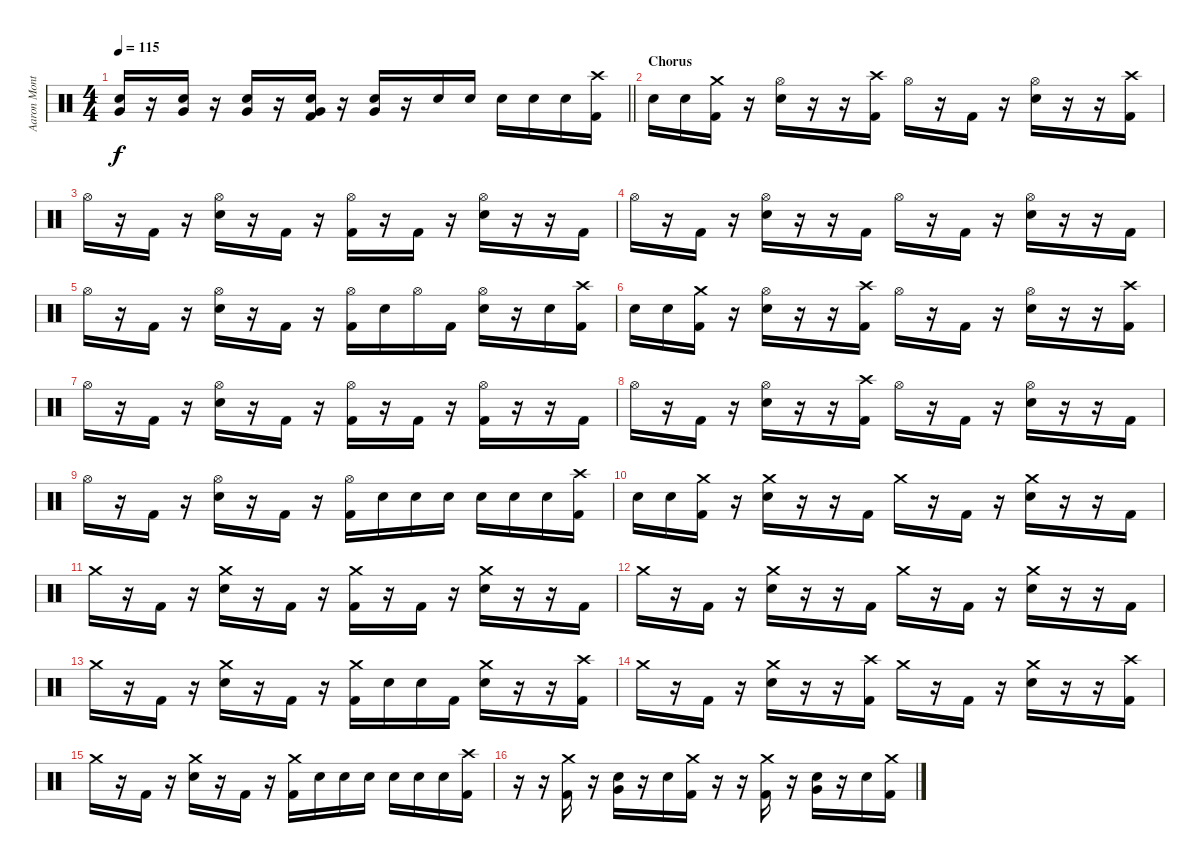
\track ("Aaron Montgomery" "Aaron Mont") {instrument percussion}
\staff {score}
\articulation defaults
\ts (4 4)
\tempo 115
\clef neutral
\barLineRight lightlight
\ks c
("Very Low Tom (hit)" "Snare (hit) 2").16{dy f} r.16 ("Very Low Tom (hit)" "Snare (hit) 2").16 r.16 ("Very Low Tom (hit)" "Snare (hit) 2").16 r.16 ("Very Low Tom (hit)" "Snare (hit) 2" "Kick (hit) 2").16 r.16 ("Very Low Tom (hit)" "Snare (hit) 2").16 r.16 "Snare (hit) 2".16 "Snare (hit) 2".16 "Snare (hit) 2".16 "Snare (hit) 2".16 "Snare (hit) 2".16 ("Crash high (hit)" "Kick (hit) 2").16 |
\section ("" "Chorus")
"Snare (hit) 2".16 "Snare (hit) 2".16 ("Crash medium (hit)" "Kick (hit) 2").16 r.16 ("Hi-Hat (open)" "Snare (hit) 2").16 r.16 r.16 ("Crash high (hit)" "Kick (hit) 2").16 "Hi-Hat (open)".16 r.16 "Kick (hit) 2".16 r.16 ("Hi-Hat (open)" "Snare (hit) 2").16 r.16 r.16 ("Crash high (hit)" "Kick (hit) 2").16 |
"Hi-Hat (open)".16 r.16 "Kick (hit) 2".16 r.16 ("Hi-Hat (open)" "Snare (hit) 2").16 r.16 "Kick (hit) 2".16 r.16 ("Hi-Hat (open)" "Kick (hit) 2").16 r.16 "Kick (hit) 2".16 r.16 ("Hi-Hat (open)" "Snare (hit) 2").16 r.16 r.16 "Kick (hit) 2".16 |
"Hi-Hat (open)".16 r.16 "Kick (hit) 2".16 r.16 ("Hi-Hat (open)" "Snare (hit) 2").16 r.16 r.16 "Kick (hit) 2".16 "Hi-Hat (open)".16 r.16 "Kick (hit) 2".16 r.16 ("Hi-Hat (open)" "Snare (hit) 2").16 r.16 r.16 "Kick (hit) 2".16 |
"Hi-Hat (open)".16 r.16 "Kick (hit) 2".16 r.16 ("Hi-Hat (open)" "Snare (hit) 2").16 r.16 "Kick (hit) 2".16 r.16 ("Hi-Hat (open)" "Kick (hit) 2").16 "Snare (hit) 2".16 "Hi-Hat (open)".16 "Kick (hit) 2".16 ("Hi-Hat (open)" "Snare (hit) 2").16 r.16 "Snare (hit) 2".16 ("Crash high (hit)" "Kick (hit) 2").16 |
"Snare (hit) 2".16 "Snare (hit) 2".16 ("Crash medium (hit)" "Kick (hit) 2").16 r.16 ("Hi-Hat (open)" "Snare (hit) 2").16 r.16 r.16 ("Crash high (hit)" "Kick (hit) 2").16 "Hi-Hat (open)".16 r.16 "Kick (hit) 2".16 r.16 ("Hi-Hat (open)" "Snare (hit) 2").16 r.16 r.16 ("Crash high (hit)" "Kick (hit) 2").16 |
"Hi-Hat (open)".16 r.16 "Kick (hit) 2".16 r.16 ("Hi-Hat (open)" "Snare (hit) 2").16 r.16 "Kick (hit) 2".16 r.16 ("Hi-Hat (open)" "Kick (hit) 2").16 r.16 "Kick (hit) 2".16 r.16 ("Hi-Hat (open)" "Kick (hit) 2").16 r.16 r.16 "Kick (hit) 2".16 |
"Hi-Hat (open)".16 r.16 "Kick (hit) 2".16 r.16 ("Hi-Hat (open)" "Snare (hit) 2").16 r.16 r.16 ("Crash high (hit)" "Kick (hit) 2").16 "Hi-Hat (open)".16 r.16 "Kick (hit) 2".16 r.16 ("Hi-Hat (open)" "Snare (hit) 2").16 r.16 r.16 "Kick (hit) 2".16 |
"Hi-Hat (open)".16 r.16 "Kick (hit) 2".16 r.16 ("Hi-Hat (open)" "Snare (hit) 2").16 r.16 "Kick (hit) 2".16 r.16 ("Hi-Hat (open)" "Kick (hit) 2").16 "Snare (hit) 2".16 "Snare (hit) 2".16 "Snare (hit) 2".16 "Snare (hit) 2".16 "Snare (hit) 2".16 "Snare (hit) 2".16 ("Crash high (hit)" "Kick (hit) 2").16 |
"Snare (hit) 2".16 "Snare (hit) 2".16 ("Crash medium (hit)" "Kick (hit) 2").16 r.16 ("Crash medium (hit)" "Snare (hit) 2").16 r.16 r.16 "Kick (hit) 2".16 "Crash medium (hit)".16 r.16 "Kick (hit) 2".16 r.16 ("Crash medium (hit)" "Snare (hit) 2").16 r.16 r.16 "Kick (hit) 2".16 |
"Crash medium (hit)".16 r.16 "Kick (hit) 2".16 r.16 ("Crash medium (hit)" "Snare (hit) 2").16 r.16 "Kick (hit) 2".16 r.16 ("Crash medium (hit)" "Kick (hit) 2").16 r.16 "Kick (hit) 2".16 r.16 ("Crash medium (hit)" "Snare (hit) 2").16 r.16 r.16 "Kick (hit) 2".16 |
"Crash medium (hit)".16 r.16 "Kick (hit) 2".16 r.16 ("Crash medium (hit)" "Snare (hit) 2").16 r.16 r.16 "Kick (hit) 2".16 "Crash medium (hit)".16 r.16 "Kick (hit) 2".16 r.16 ("Crash medium (hit)" "Snare (hit) 2").16 r.16 r.16 "Kick (hit) 2".16 |
"Crash medium (hit)".16 r.16 "Kick (hit) 2".16 r.16 ("Crash medium (hit)" "Snare (hit) 2").16 r.16 "Kick (hit) 2".16 r.16 ("Crash medium (hit)" "Kick (hit) 2").16 "Snare (hit) 2".16 "Snare (hit) 2".16 "Kick (hit) 2".16 ("Crash medium (hit)" "Snare (hit) 2").16 r.16 r.16 ("Crash high (hit)" "Kick (hit) 2").16 |
"Crash medium (hit)".16 r.16 "Kick (hit) 2".16 r.16 ("Crash medium (hit)" "Snare (hit) 2").16 r.16 r.16 ("Crash high (hit)" "Kick (hit) 2").16 "Crash medium (hit)".16 r.16 "Kick (hit) 2".16 r.16 ("Crash medium (hit)" "Snare (hit) 2").16 r.16 r.16 ("Crash high (hit)" "Kick (hit) 2").16 |
"Crash medium (hit)".16 r.16 "Kick (hit) 2".16 r.16 ("Crash medium (hit)" "Snare (hit) 2").16 r.16 "Kick (hit) 2".16 r.16 ("Crash medium (hit)" "Kick (hit) 2").16 "Snare (hit) 2".16 "Snare (hit) 2".16 "Snare (hit) 2".16 "Snare (hit) 2".16 "Snare (hit) 2".16 "Snare (hit) 2".16 ("Crash high (hit)" "Kick (hit) 2").16 |
r.16 r.16 ("Crash medium (hit)" "Kick (hit) 2").16 r.16 ("Very Low Tom (hit)" "Snare (hit) 2").16 r.16 "Snare (hit) 2".16 ("Crash medium (hit)" "Kick (hit) 2").16 r.16 r.16 ("Crash medium (hit)" "Kick (hit) 2").16 r.16 ("Very Low Tom (hit)" "Snare (hit) 2").16 r.16 "Snare (hit) 2".16 ("Crash medium (hit)" "Kick (hit) 2").16
